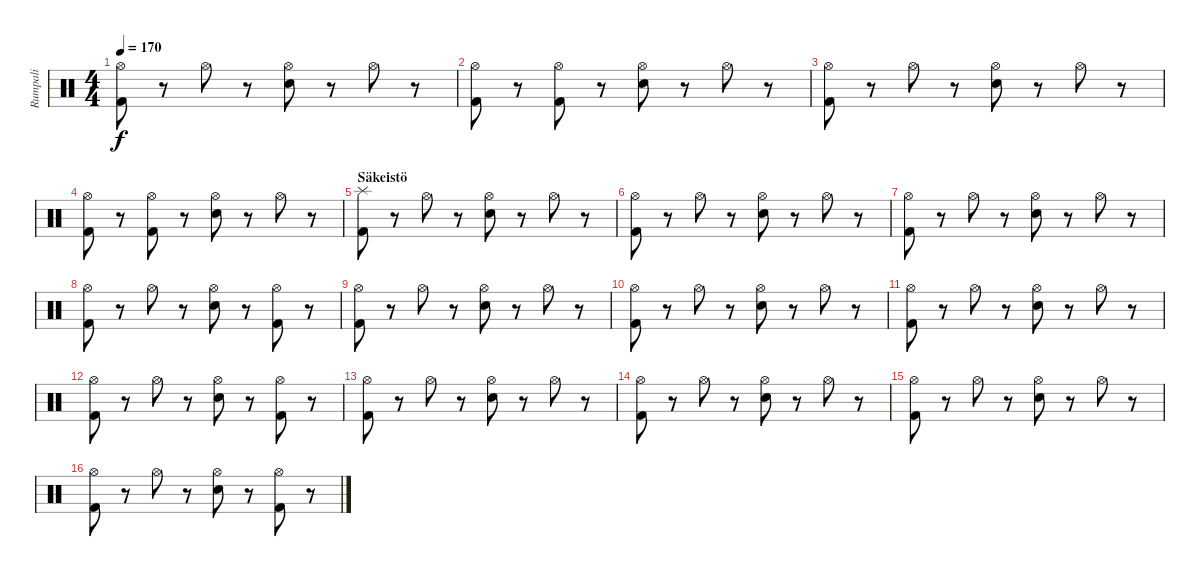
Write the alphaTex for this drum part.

\track ("Rumpali" "Rumpali") {instrument percussion}
\staff {score}
\articulation defaults
\ts (4 4)
\tempo 170
\clef neutral
\ks c
("Hi-Hat (open)" "Kick (hit) 2").8{dy f} r.8 "Hi-Hat (open)".8 r.8 ("Hi-Hat (open)" "Electric Snare (hit)").8 r.8 "Hi-Hat (open)".8 r.8 |
("Hi-Hat (open)" "Kick (hit) 2").8 r.8 ("Hi-Hat (open)" "Kick (hit) 2").8 r.8 ("Hi-Hat (open)" "Electric Snare (hit)").8 r.8 "Hi-Hat (open)".8 r.8 |
("Hi-Hat (open)" "Kick (hit) 2").8 r.8 "Hi-Hat (open)".8 r.8 ("Hi-Hat (open)" "Electric Snare (hit)").8 r.8 "Hi-Hat (open)".8 r.8 |
("Hi-Hat (open)" "Kick (hit) 2").8 r.8 ("Hi-Hat (open)" "Kick (hit) 2").8 r.8 ("Hi-Hat (open)" "Electric Snare (hit)").8 r.8 "Hi-Hat (open)".8 r.8 |
\section ("" "Säkeistö")
("Splash (hit)" "Kick (hit) 2").8 r.8 "Hi-Hat (open)".8 r.8 ("Hi-Hat (open)" "Electric Snare (hit)").8 r.8 "Hi-Hat (open)".8 r.8 |
("Hi-Hat (open)" "Kick (hit) 2").8 r.8 "Hi-Hat (open)".8 r.8 ("Hi-Hat (open)" "Electric Snare (hit)").8 r.8 "Hi-Hat (open)".8 r.8 |
("Hi-Hat (open)" "Kick (hit) 2").8 r.8 "Hi-Hat (open)".8 r.8 ("Hi-Hat (open)" "Electric Snare (hit)").8 r.8 "Hi-Hat (open)".8 r.8 |
("Hi-Hat (open)" "Kick (hit) 2").8 r.8 "Hi-Hat (open)".8 r.8 ("Hi-Hat (open)" "Electric Snare (hit)").8 r.8 ("Hi-Hat (open)" "Kick (hit) 2").8 r.8 |
("Hi-Hat (open)" "Kick (hit) 2").8 r.8 "Hi-Hat (open)".8 r.8 ("Hi-Hat (open)" "Electric Snare (hit)").8 r.8 "Hi-Hat (open)".8 r.8 |
("Hi-Hat (open)" "Kick (hit) 2").8 r.8 "Hi-Hat (open)".8 r.8 ("Hi-Hat (open)" "Electric Snare (hit)").8 r.8 "Hi-Hat (open)".8 r.8 |
("Hi-Hat (open)" "Kick (hit) 2").8 r.8 "Hi-Hat (open)".8 r.8 ("Hi-Hat (open)" "Electric Snare (hit)").8 r.8 "Hi-Hat (open)".8 r.8 |
("Hi-Hat (open)" "Kick (hit) 2").8 r.8 "Hi-Hat (open)".8 r.8 ("Hi-Hat (open)" "Electric Snare (hit)").8 r.8 ("Hi-Hat (open)" "Kick (hit) 2").8 r.8 |
("Hi-Hat (open)" "Kick (hit) 2").8 r.8 "Hi-Hat (open)".8 r.8 ("Hi-Hat (open)" "Electric Snare (hit)").8 r.8 "Hi-Hat (open)".8 r.8 |
("Hi-Hat (open)" "Kick (hit) 2").8 r.8 "Hi-Hat (open)".8 r.8 ("Hi-Hat (open)" "Electric Snare (hit)").8 r.8 "Hi-Hat (open)".8 r.8 |
("Hi-Hat (open)" "Kick (hit) 2").8 r.8 "Hi-Hat (open)".8 r.8 ("Hi-Hat (open)" "Electric Snare (hit)").8 r.8 "Hi-Hat (open)".8 r.8 |
("Hi-Hat (open)" "Kick (hit) 2").8 r.8 "Hi-Hat (open)".8 r.8 ("Hi-Hat (open)" "Electric Snare (hit)").8 r.8 ("Hi-Hat (open)" "Kick (hit) 2").8 r.8
